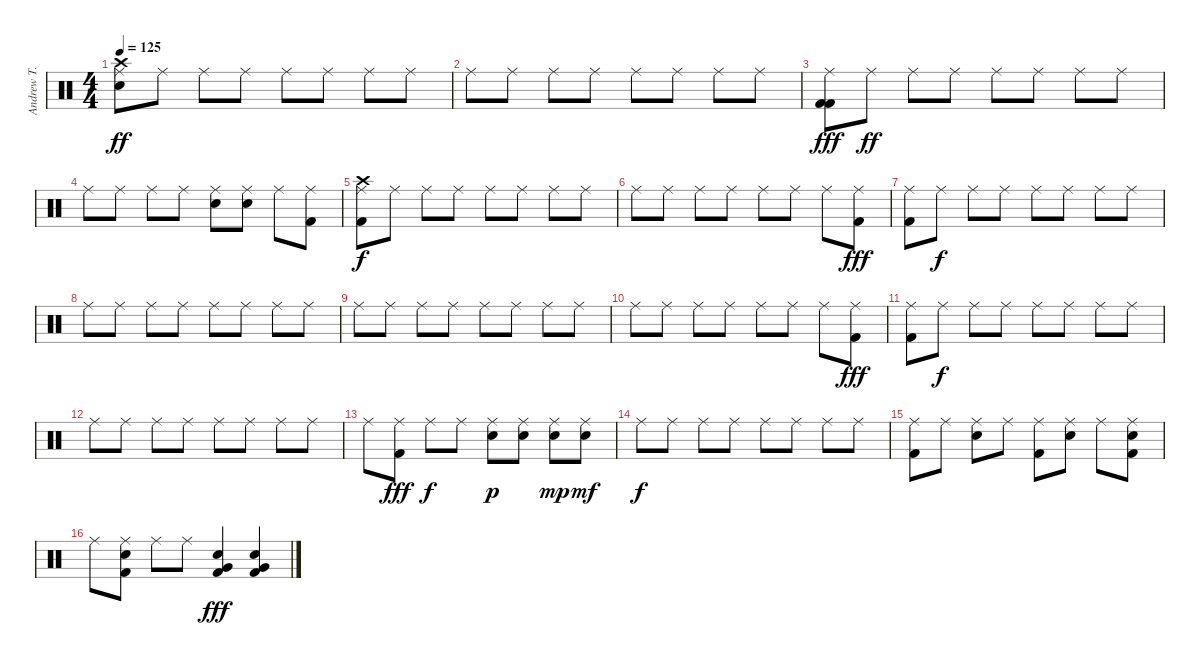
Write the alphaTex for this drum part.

\track ("Andrew T." "Andrew T.") {instrument percussion}
\staff {score}
\articulation defaults
\ts (4 4)
\tempo 125
\clef neutral
\ks c
("Crash high (hit)" "Ride (middle)" "Electric Snare (hit)").8{dy ff} "Ride (middle)".8 "Ride (middle)".8 "Ride (middle)".8 "Ride (middle)".8 "Ride (middle)".8 "Ride (middle)".8 "Ride (middle)".8 |
"Ride (middle)".8 "Ride (middle)".8 "Ride (middle)".8 "Ride (middle)".8 "Ride (middle)".8 "Ride (middle)".8 "Ride (middle)".8 "Ride (middle)".8 |
("Ride (middle)" "Kick (hit) 2" "Kick (hit) 2").8{dy fff} "Ride (middle)".8{dy ff} "Ride (middle)".8 "Ride (middle)".8 "Ride (middle)".8 "Ride (middle)".8 "Ride (middle)".8 "Ride (middle)".8 |
"Ride (middle)".8 "Ride (middle)".8 "Ride (middle)".8 "Ride (middle)".8 ("Ride (middle)" "Electric Snare (hit)").8 ("Ride (middle)" "Electric Snare (hit)").8 "Ride (middle)".8 ("Ride (middle)" "Kick (hit) 2").8 |
("Ride (middle)" "Crash high (hit)" "Kick (hit) 2").8{dy f} "Ride (middle)".8 "Ride (middle)".8 "Ride (middle)".8 "Ride (middle)".8 "Ride (middle)".8 "Ride (middle)".8 "Ride (middle)".8 |
"Ride (middle)".8 "Ride (middle)".8 "Ride (middle)".8 "Ride (middle)".8 "Ride (middle)".8 "Ride (middle)".8 "Ride (middle)".8 ("Ride (middle)" "Kick (hit) 2").8{dy fff} |
("Ride (middle)" "Kick (hit) 2").8 "Ride (middle)".8{dy f} "Ride (middle)".8 "Ride (middle)".8 "Ride (middle)".8 "Ride (middle)".8 "Ride (middle)".8 "Ride (middle)".8 |
"Ride (middle)".8 "Ride (middle)".8 "Ride (middle)".8 "Ride (middle)".8 "Ride (middle)".8 "Ride (middle)".8 "Ride (middle)".8 "Ride (middle)".8 |
"Ride (middle)".8 "Ride (middle)".8 "Ride (middle)".8 "Ride (middle)".8 "Ride (middle)".8 "Ride (middle)".8 "Ride (middle)".8 "Ride (middle)".8 |
"Ride (middle)".8 "Ride (middle)".8 "Ride (middle)".8 "Ride (middle)".8 "Ride (middle)".8 "Ride (middle)".8 "Ride (middle)".8 ("Ride (middle)" "Kick (hit) 2").8{dy fff} |
("Ride (middle)" "Kick (hit) 2").8 "Ride (middle)".8{dy f} "Ride (middle)".8 "Ride (middle)".8 "Ride (middle)".8 "Ride (middle)".8 "Ride (middle)".8 "Ride (middle)".8 |
"Ride (middle)".8 "Ride (middle)".8 "Ride (middle)".8 "Ride (middle)".8 "Ride (middle)".8 "Ride (middle)".8 "Ride (middle)".8 "Ride (middle)".8 |
"Ride (middle)".8 ("Ride (middle)" "Kick (hit) 2").8{dy fff} "Ride (middle)".8{dy f} "Ride (middle)".8 ("Ride (middle)" "Electric Snare (hit)").8{dy p} ("Ride (middle)" "Electric Snare (hit)").8 ("Ride (middle)" "Electric Snare (hit)").8{dy mp} ("Ride (middle)" "Electric Snare (hit)").8{dy mf} |
"Ride (middle)".8{dy f} "Ride (middle)".8 "Ride (middle)".8 "Ride (middle)".8 "Ride (middle)".8 "Ride (middle)".8 "Ride (middle)".8 "Ride (middle)".8 |
("Ride (middle)" "Kick (hit) 2").8 "Ride (middle)".8 ("Ride (middle)" "Electric Snare (hit)").8 "Ride (middle)".8 ("Ride (middle)" "Kick (hit) 2").8 ("Ride (middle)" "Electric Snare (hit)").8 "Ride (middle)".8 ("Ride (middle)" "Electric Snare (hit)" "Kick (hit) 2").8 |
"Ride (middle)".8 ("Ride (middle)" "Electric Snare (hit)" "Kick (hit) 2").8 "Ride (middle)".8 "Ride (middle)".8 ("Electric Snare (hit)" "Very Low Tom (hit)" "Kick (hit) 2").4{dy fff} ("Electric Snare (hit)" "Very Low Tom (hit)" "Kick (hit) 2").4
